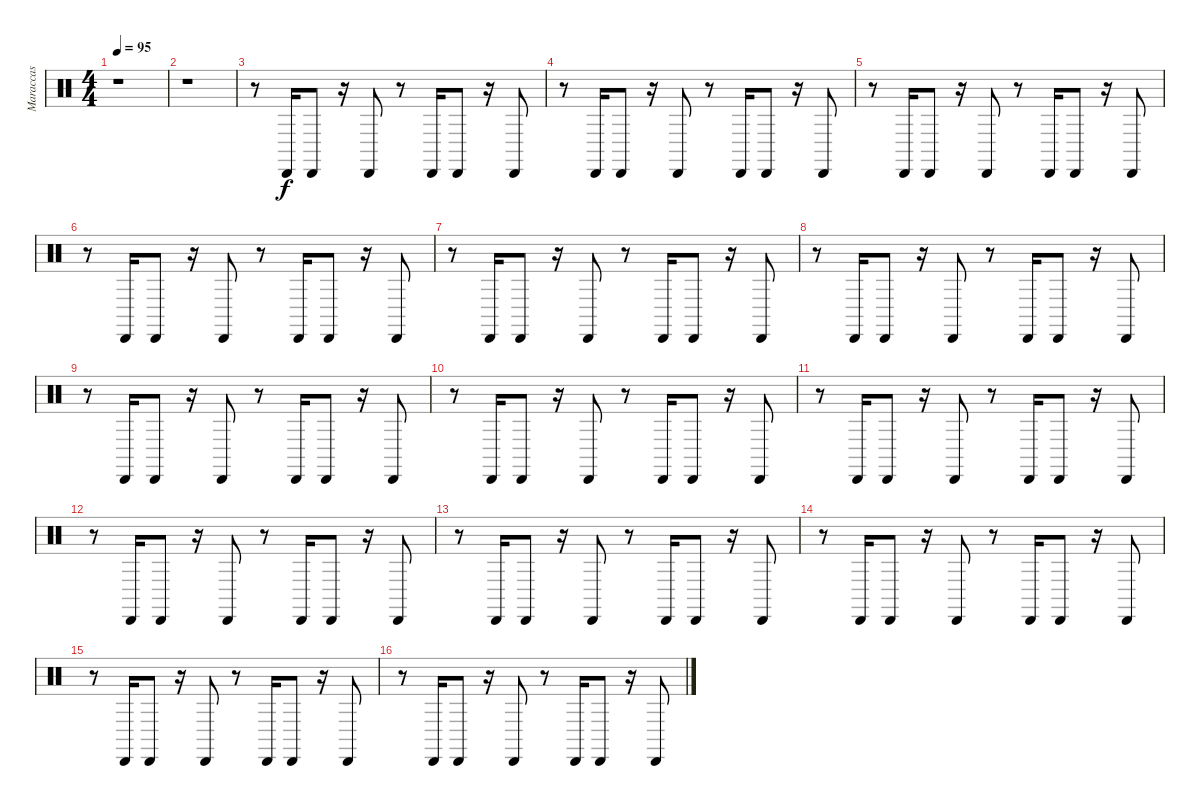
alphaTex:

\track ("Maraccas" "Maraccas") {instrument percussion}
\staff {score}
\articulation defaults
\ts (4 4)
\tempo 95
\clef neutral
\ks c
r.1{dy f} |
r.1 |
r.8 "Cabasa (hit)".16 "Cabasa (hit)".8 r.16 "Cabasa (hit)".8 r.8 "Cabasa (hit)".16 "Cabasa (hit)".8 r.16 "Cabasa (hit)".8 |
r.8 "Cabasa (hit)".16 "Cabasa (hit)".8 r.16 "Cabasa (hit)".8 r.8 "Cabasa (hit)".16 "Cabasa (hit)".8 r.16 "Cabasa (hit)".8 |
r.8 "Cabasa (hit)".16 "Cabasa (hit)".8 r.16 "Cabasa (hit)".8 r.8 "Cabasa (hit)".16 "Cabasa (hit)".8 r.16 "Cabasa (hit)".8 |
r.8 "Cabasa (hit)".16 "Cabasa (hit)".8 r.16 "Cabasa (hit)".8 r.8 "Cabasa (hit)".16 "Cabasa (hit)".8 r.16 "Cabasa (hit)".8 |
r.8 "Cabasa (hit)".16 "Cabasa (hit)".8 r.16 "Cabasa (hit)".8 r.8 "Cabasa (hit)".16 "Cabasa (hit)".8 r.16 "Cabasa (hit)".8 |
r.8 "Cabasa (hit)".16 "Cabasa (hit)".8 r.16 "Cabasa (hit)".8 r.8 "Cabasa (hit)".16 "Cabasa (hit)".8 r.16 "Cabasa (hit)".8 |
r.8 "Cabasa (hit)".16 "Cabasa (hit)".8 r.16 "Cabasa (hit)".8 r.8 "Cabasa (hit)".16 "Cabasa (hit)".8 r.16 "Cabasa (hit)".8 |
r.8 "Cabasa (hit)".16 "Cabasa (hit)".8 r.16 "Cabasa (hit)".8 r.8 "Cabasa (hit)".16 "Cabasa (hit)".8 r.16 "Cabasa (hit)".8 |
r.8 "Cabasa (hit)".16 "Cabasa (hit)".8 r.16 "Cabasa (hit)".8 r.8 "Cabasa (hit)".16 "Cabasa (hit)".8 r.16 "Cabasa (hit)".8 |
r.8 "Cabasa (hit)".16 "Cabasa (hit)".8 r.16 "Cabasa (hit)".8 r.8 "Cabasa (hit)".16 "Cabasa (hit)".8 r.16 "Cabasa (hit)".8 |
r.8 "Cabasa (hit)".16 "Cabasa (hit)".8 r.16 "Cabasa (hit)".8 r.8 "Cabasa (hit)".16 "Cabasa (hit)".8 r.16 "Cabasa (hit)".8 |
r.8 "Cabasa (hit)".16 "Cabasa (hit)".8 r.16 "Cabasa (hit)".8 r.8 "Cabasa (hit)".16 "Cabasa (hit)".8 r.16 "Cabasa (hit)".8 |
r.8 "Cabasa (hit)".16 "Cabasa (hit)".8 r.16 "Cabasa (hit)".8 r.8 "Cabasa (hit)".16 "Cabasa (hit)".8 r.16 "Cabasa (hit)".8 |
r.8 "Cabasa (hit)".16 "Cabasa (hit)".8 r.16 "Cabasa (hit)".8 r.8 "Cabasa (hit)".16 "Cabasa (hit)".8 r.16 "Cabasa (hit)".8
